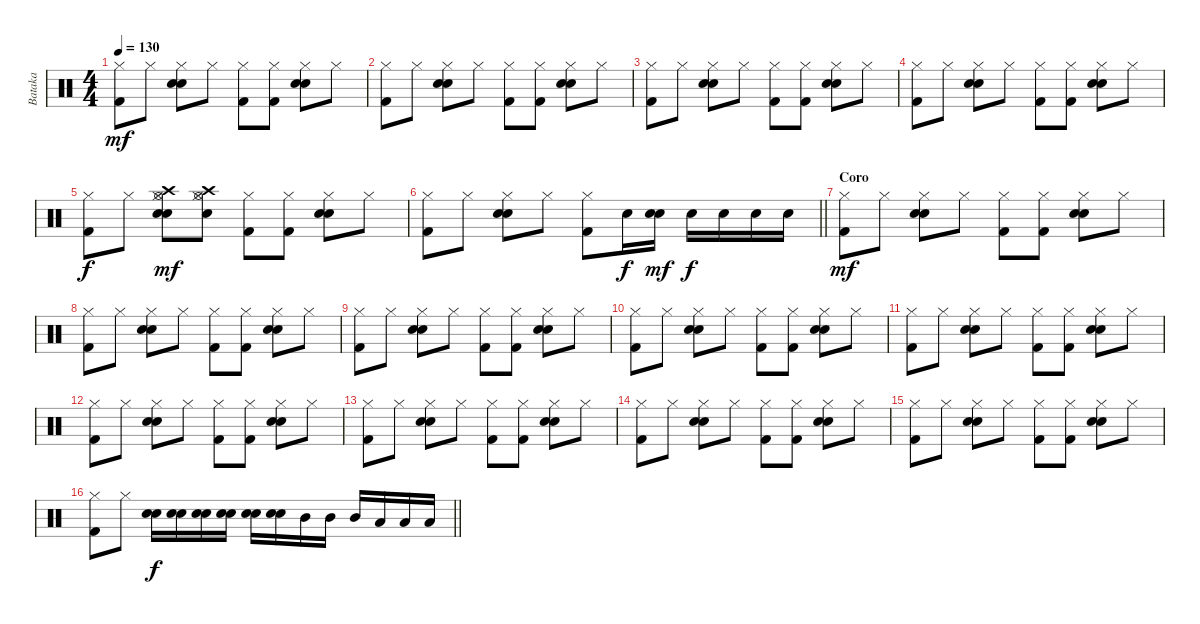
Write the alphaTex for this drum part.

\track ("Bataka" "Bataka") {instrument percussion}
\staff
\articulation defaults
\ts (4 4)
\tempo 130
\clef neutral
\ks c
("Hi-Hat (closed)" "Kick (hit) 2").8{dy mf} "Hi-Hat (closed)".8 ("Hi-Hat (closed)" "Electric Snare (hit)" "Snare (hit) 2").8 "Hi-Hat (closed)".8 ("Hi-Hat (closed)" "Kick (hit) 2").8 ("Hi-Hat (closed)" "Kick (hit) 2").8 ("Hi-Hat (closed)" "Electric Snare (hit)" "Snare (hit) 2").8 "Hi-Hat (closed)".8 |
("Hi-Hat (closed)" "Kick (hit) 2").8 "Hi-Hat (closed)".8 ("Hi-Hat (closed)" "Electric Snare (hit)" "Snare (hit) 2").8 "Hi-Hat (closed)".8 ("Hi-Hat (closed)" "Kick (hit) 2").8 ("Hi-Hat (closed)" "Kick (hit) 2").8 ("Hi-Hat (closed)" "Electric Snare (hit)" "Snare (hit) 2").8 "Hi-Hat (closed)".8 |
("Hi-Hat (closed)" "Kick (hit) 2").8 "Hi-Hat (closed)".8 ("Hi-Hat (closed)" "Electric Snare (hit)" "Snare (hit) 2").8 "Hi-Hat (closed)".8 ("Hi-Hat (closed)" "Kick (hit) 2").8 ("Hi-Hat (closed)" "Kick (hit) 2").8 ("Hi-Hat (closed)" "Electric Snare (hit)" "Snare (hit) 2").8 "Hi-Hat (closed)".8 |
("Hi-Hat (closed)" "Kick (hit) 2").8 "Hi-Hat (closed)".8 ("Hi-Hat (closed)" "Electric Snare (hit)" "Snare (hit) 2").8 "Hi-Hat (closed)".8 ("Hi-Hat (closed)" "Kick (hit) 2").8 ("Hi-Hat (closed)" "Kick (hit) 2").8 ("Hi-Hat (closed)" "Electric Snare (hit)" "Snare (hit) 2").8 "Hi-Hat (closed)".8 |
("Hi-Hat (closed)" "Kick (hit) 2").8{dy f} "Hi-Hat (closed)".8 ("Hi-Hat (closed)" "Hi-Hat (open)" "Electric Snare (hit)" "Snare (hit) 2" "Crash high (hit)").8{dy mf} ("Hi-Hat (closed)" "Hi-Hat (open)" "Electric Snare (hit)" "Crash high (hit)").8 ("Hi-Hat (closed)" "Kick (hit) 2").8 ("Hi-Hat (closed)" "Kick (hit) 2").8 ("Hi-Hat (closed)" "Electric Snare (hit)" "Snare (hit) 2").8 "Hi-Hat (closed)".8 |
\barLineRight lightlight
("Hi-Hat (closed)" "Kick (hit) 2").8 "Hi-Hat (closed)".8 ("Hi-Hat (closed)" "Electric Snare (hit)" "Snare (hit) 2").8 "Hi-Hat (closed)".8 ("Hi-Hat (closed)" "Kick (hit) 2").8 "Electric Snare (hit)".16{dy f} ("Electric Snare (hit)" "Snare (hit) 2").16{dy mf} "Electric Snare (hit)".16{dy f} "Electric Snare (hit)".16 "Electric Snare (hit)".16 "Electric Snare (hit)".16 |
\section ("" "Coro")
("Hi-Hat (closed)" "Kick (hit) 2").8{dy mf} "Hi-Hat (closed)".8 ("Hi-Hat (closed)" "Electric Snare (hit)" "Snare (hit) 2").8 "Hi-Hat (closed)".8 ("Hi-Hat (closed)" "Kick (hit) 2").8 ("Hi-Hat (closed)" "Kick (hit) 2").8 ("Hi-Hat (closed)" "Electric Snare (hit)" "Snare (hit) 2").8 "Hi-Hat (closed)".8 |
("Hi-Hat (closed)" "Kick (hit) 2").8 "Hi-Hat (closed)".8 ("Hi-Hat (closed)" "Electric Snare (hit)" "Snare (hit) 2").8 "Hi-Hat (closed)".8 ("Hi-Hat (closed)" "Kick (hit) 2").8 ("Hi-Hat (closed)" "Kick (hit) 2").8 ("Hi-Hat (closed)" "Electric Snare (hit)" "Snare (hit) 2").8 "Hi-Hat (closed)".8 |
("Hi-Hat (closed)" "Kick (hit) 2").8 "Hi-Hat (closed)".8 ("Hi-Hat (closed)" "Electric Snare (hit)" "Snare (hit) 2").8 "Hi-Hat (closed)".8 ("Hi-Hat (closed)" "Kick (hit) 2").8 ("Hi-Hat (closed)" "Kick (hit) 2").8 ("Hi-Hat (closed)" "Electric Snare (hit)" "Snare (hit) 2").8 "Hi-Hat (closed)".8 |
("Hi-Hat (closed)" "Kick (hit) 2").8 "Hi-Hat (closed)".8 ("Hi-Hat (closed)" "Electric Snare (hit)" "Snare (hit) 2").8 "Hi-Hat (closed)".8 ("Hi-Hat (closed)" "Kick (hit) 2").8 ("Hi-Hat (closed)" "Kick (hit) 2").8 ("Hi-Hat (closed)" "Electric Snare (hit)" "Snare (hit) 2").8 "Hi-Hat (closed)".8 |
("Hi-Hat (closed)" "Kick (hit) 2").8 "Hi-Hat (closed)".8 ("Hi-Hat (closed)" "Electric Snare (hit)" "Snare (hit) 2").8 "Hi-Hat (closed)".8 ("Hi-Hat (closed)" "Kick (hit) 2").8 ("Hi-Hat (closed)" "Kick (hit) 2").8 ("Hi-Hat (closed)" "Electric Snare (hit)" "Snare (hit) 2").8 "Hi-Hat (closed)".8 |
("Hi-Hat (closed)" "Kick (hit) 2").8 "Hi-Hat (closed)".8 ("Hi-Hat (closed)" "Electric Snare (hit)" "Snare (hit) 2").8 "Hi-Hat (closed)".8 ("Hi-Hat (closed)" "Kick (hit) 2").8 ("Hi-Hat (closed)" "Kick (hit) 2").8 ("Hi-Hat (closed)" "Electric Snare (hit)" "Snare (hit) 2").8 "Hi-Hat (closed)".8 |
("Hi-Hat (closed)" "Kick (hit) 2").8 "Hi-Hat (closed)".8 ("Hi-Hat (closed)" "Electric Snare (hit)" "Snare (hit) 2").8 "Hi-Hat (closed)".8 ("Hi-Hat (closed)" "Kick (hit) 2").8 ("Hi-Hat (closed)" "Kick (hit) 2").8 ("Hi-Hat (closed)" "Electric Snare (hit)" "Snare (hit) 2").8 "Hi-Hat (closed)".8 |
("Hi-Hat (closed)" "Kick (hit) 2").8 "Hi-Hat (closed)".8 ("Hi-Hat (closed)" "Electric Snare (hit)" "Snare (hit) 2").8 "Hi-Hat (closed)".8 ("Hi-Hat (closed)" "Kick (hit) 2").8 ("Hi-Hat (closed)" "Kick (hit) 2").8 ("Hi-Hat (closed)" "Electric Snare (hit)" "Snare (hit) 2").8 "Hi-Hat (closed)".8 |
("Hi-Hat (closed)" "Kick (hit) 2").8 "Hi-Hat (closed)".8 ("Hi-Hat (closed)" "Electric Snare (hit)" "Snare (hit) 2").8 "Hi-Hat (closed)".8 ("Hi-Hat (closed)" "Kick (hit) 2").8 ("Hi-Hat (closed)" "Kick (hit) 2").8 ("Hi-Hat (closed)" "Electric Snare (hit)" "Snare (hit) 2").8 "Hi-Hat (closed)".8 |
\barLineRight lightlight
("Hi-Hat (closed)" "Kick (hit) 2").8{volume 12} "Hi-Hat (closed)".8 ("Electric Snare (hit)" "Snare (hit) 2").16{dy f} ("Electric Snare (hit)" "Snare (hit) 2").16 ("Electric Snare (hit)" "Snare (hit) 2").16 ("Electric Snare (hit)" "Snare (hit) 2").16 ("Electric Snare (hit)" "Snare (hit) 2").16 ("Electric Snare (hit)" "Snare (hit) 2").16 "Mid Tom (hit)".16 "Mid Tom (hit)".16 "Mid Tom (hit)".16 "Low Tom (hit)".16 "Low Tom (hit)".16 "Low Tom (hit)".16
